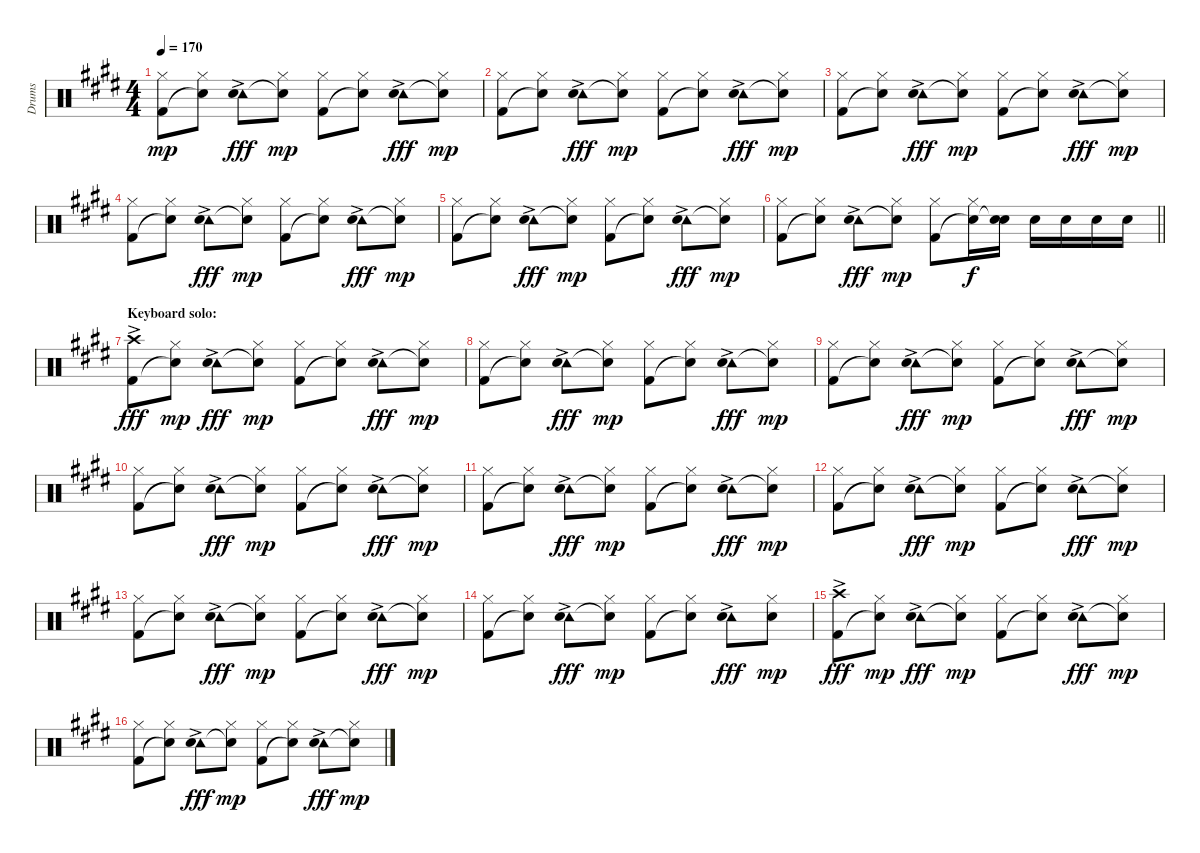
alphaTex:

\track ("Drums" "Drums") {instrument percussion}
\staff {score}
\articulation defaults
\ts (4 4)
\tempo 170
\clef neutral
\ks c#minor
("Hi-Hat (closed)" "Kick (hit) 2").8{dy mp} ("Hi-Hat (closed)" "Snare (hit)"{t}).8 ("Tambourine (hit)"{ac} "Hand Clap (hit)").8{dy fff} ("Hi-Hat (closed)" "Snare (hit)"{t}).8{dy mp} ("Hi-Hat (closed)" "Kick (hit) 2").8 ("Hi-Hat (closed)" "Snare (hit)"{t}).8 ("Tambourine (hit)"{ac} "Hand Clap (hit)").8{dy fff} ("Hi-Hat (closed)" "Snare (hit)"{t}).8{dy mp} |
("Hi-Hat (closed)" "Kick (hit) 2").8 ("Hi-Hat (closed)" "Snare (hit)"{t}).8 ("Tambourine (hit)"{ac} "Hand Clap (hit)").8{dy fff} ("Hi-Hat (closed)" "Snare (hit)"{t}).8{dy mp} ("Hi-Hat (closed)" "Kick (hit) 2").8 ("Hi-Hat (closed)" "Snare (hit)"{t}).8 ("Tambourine (hit)"{ac} "Hand Clap (hit)").8{dy fff} ("Hi-Hat (closed)" "Snare (hit)"{t}).8{dy mp} |
("Hi-Hat (closed)" "Kick (hit) 2").8 ("Hi-Hat (closed)" "Snare (hit)"{t}).8 ("Tambourine (hit)"{ac} "Hand Clap (hit)").8{dy fff} ("Hi-Hat (closed)" "Snare (hit)"{t}).8{dy mp} ("Hi-Hat (closed)" "Kick (hit) 2").8 ("Hi-Hat (closed)" "Snare (hit)"{t}).8 ("Tambourine (hit)"{ac} "Hand Clap (hit)").8{dy fff} ("Hi-Hat (closed)" "Snare (hit)"{t}).8{dy mp} |
("Hi-Hat (closed)" "Kick (hit) 2").8 ("Hi-Hat (closed)" "Snare (hit)"{t}).8 ("Tambourine (hit)"{ac} "Hand Clap (hit)").8{dy fff} ("Hi-Hat (closed)" "Snare (hit)"{t}).8{dy mp} ("Hi-Hat (closed)" "Kick (hit) 2").8 ("Hi-Hat (closed)" "Snare (hit)"{t}).8 ("Tambourine (hit)"{ac} "Hand Clap (hit)").8{dy fff} ("Hi-Hat (closed)" "Snare (hit)"{t}).8{dy mp} |
("Hi-Hat (closed)" "Kick (hit) 2").8 ("Hi-Hat (closed)" "Snare (hit)"{t}).8 ("Tambourine (hit)"{ac} "Hand Clap (hit)").8{dy fff} ("Hi-Hat (closed)" "Snare (hit)"{t}).8{dy mp} ("Hi-Hat (closed)" "Kick (hit) 2").8 ("Hi-Hat (closed)" "Snare (hit)"{t}).8 ("Tambourine (hit)"{ac} "Hand Clap (hit)").8{dy fff} ("Hi-Hat (closed)" "Snare (hit)"{t}).8{dy mp} |
\barLineRight lightlight
("Hi-Hat (closed)" "Kick (hit) 2").8 ("Hi-Hat (closed)" "Snare (hit)"{t}).8 ("Tambourine (hit)"{ac} "Hand Clap (hit)").8{dy fff} ("Hi-Hat (closed)" "Snare (hit)"{t}).8{dy mp} ("Hi-Hat (closed)" "Kick (hit) 2").8 ("Hi-Hat (closed)" "Snare (hit)"{t}).16{dy f} ("Snare (hit) 2" "Snare (hit)"{t}).16 "Snare (hit) 2".16 "Snare (hit) 2".16 "Snare (hit) 2".16 "Snare (hit) 2".16 |
\section ("" "Keyboard solo:")
("Crash high (hit)"{ac} "Kick (hit) 2").8{dy fff} ("Hi-Hat (closed)" "Snare (hit)"{t}).8{dy mp} ("Tambourine (hit)"{ac} "Hand Clap (hit)").8{dy fff} ("Hi-Hat (closed)" "Snare (hit)"{t}).8{dy mp} ("Hi-Hat (closed)" "Kick (hit) 2").8 ("Hi-Hat (closed)" "Snare (hit)"{t}).8 ("Tambourine (hit)"{ac} "Hand Clap (hit)").8{dy fff} ("Hi-Hat (closed)" "Snare (hit)"{t}).8{dy mp} |
("Hi-Hat (closed)" "Kick (hit) 2").8 ("Hi-Hat (closed)" "Snare (hit)"{t}).8 ("Tambourine (hit)"{ac} "Hand Clap (hit)").8{dy fff} ("Hi-Hat (closed)" "Snare (hit)"{t}).8{dy mp} ("Hi-Hat (closed)" "Kick (hit) 2").8 ("Hi-Hat (closed)" "Snare (hit)"{t}).8 ("Tambourine (hit)"{ac} "Hand Clap (hit)").8{dy fff} ("Hi-Hat (closed)" "Snare (hit)"{t}).8{dy mp} |
("Hi-Hat (closed)" "Kick (hit) 2").8 ("Hi-Hat (closed)" "Snare (hit)"{t}).8 ("Tambourine (hit)"{ac} "Hand Clap (hit)").8{dy fff} ("Hi-Hat (closed)" "Snare (hit)"{t}).8{dy mp} ("Hi-Hat (closed)" "Kick (hit) 2").8 ("Hi-Hat (closed)" "Snare (hit)"{t}).8 ("Tambourine (hit)"{ac} "Hand Clap (hit)").8{dy fff} ("Hi-Hat (closed)" "Snare (hit)"{t}).8{dy mp} |
("Hi-Hat (closed)" "Kick (hit) 2").8 ("Hi-Hat (closed)" "Snare (hit)"{t}).8 ("Tambourine (hit)"{ac} "Hand Clap (hit)").8{dy fff} ("Hi-Hat (closed)" "Snare (hit)"{t}).8{dy mp} ("Hi-Hat (closed)" "Kick (hit) 2").8 ("Hi-Hat (closed)" "Snare (hit)"{t}).8 ("Tambourine (hit)"{ac} "Hand Clap (hit)").8{dy fff} ("Hi-Hat (closed)" "Snare (hit)"{t}).8{dy mp} |
("Hi-Hat (closed)" "Kick (hit) 2").8 ("Hi-Hat (closed)" "Snare (hit)"{t}).8 ("Tambourine (hit)"{ac} "Hand Clap (hit)").8{dy fff} ("Hi-Hat (closed)" "Snare (hit)"{t}).8{dy mp} ("Hi-Hat (closed)" "Kick (hit) 2").8 ("Hi-Hat (closed)" "Snare (hit)"{t}).8 ("Tambourine (hit)"{ac} "Hand Clap (hit)").8{dy fff} ("Hi-Hat (closed)" "Snare (hit)"{t}).8{dy mp} |
("Hi-Hat (closed)" "Kick (hit) 2").8 ("Hi-Hat (closed)" "Snare (hit)"{t}).8 ("Tambourine (hit)"{ac} "Hand Clap (hit)").8{dy fff} ("Hi-Hat (closed)" "Snare (hit)"{t}).8{dy mp} ("Hi-Hat (closed)" "Kick (hit) 2").8 ("Hi-Hat (closed)" "Snare (hit)"{t}).8 ("Tambourine (hit)"{ac} "Hand Clap (hit)").8{dy fff} ("Hi-Hat (closed)" "Snare (hit)"{t}).8{dy mp} |
("Hi-Hat (closed)" "Kick (hit) 2").8 ("Hi-Hat (closed)" "Snare (hit)"{t}).8 ("Tambourine (hit)"{ac} "Hand Clap (hit)").8{dy fff} ("Hi-Hat (closed)" "Snare (hit)"{t}).8{dy mp} ("Hi-Hat (closed)" "Kick (hit) 2").8 ("Hi-Hat (closed)" "Snare (hit)"{t}).8 ("Tambourine (hit)"{ac} "Hand Clap (hit)").8{dy fff} ("Hi-Hat (closed)" "Snare (hit)"{t}).8{dy mp} |
("Hi-Hat (closed)" "Kick (hit) 2").8 ("Hi-Hat (closed)" "Snare (hit)"{t}).8 ("Tambourine (hit)"{ac} "Hand Clap (hit)").8{dy fff} ("Hi-Hat (closed)" "Snare (hit)"{t}).8{dy mp} ("Hi-Hat (closed)" "Kick (hit) 2").8 ("Hi-Hat (closed)" "Snare (hit)"{t}).8 ("Tambourine (hit)"{ac} "Snare (hit) 2").8{dy fff} ("Hi-Hat (closed)" "Snare (hit) 2").8{dy mp} |
("Crash high (hit)"{ac} "Kick (hit) 2").8{dy fff} ("Hi-Hat (closed)" "Snare (hit)"{t}).8{dy mp} ("Tambourine (hit)"{ac} "Hand Clap (hit)").8{dy fff} ("Hi-Hat (closed)" "Snare (hit)"{t}).8{dy mp} ("Hi-Hat (closed)" "Kick (hit) 2").8 ("Hi-Hat (closed)" "Snare (hit)"{t}).8 ("Tambourine (hit)"{ac} "Hand Clap (hit)").8{dy fff} ("Hi-Hat (closed)" "Snare (hit)"{t}).8{dy mp} |
("Hi-Hat (closed)" "Kick (hit) 2").8 ("Hi-Hat (closed)" "Snare (hit)"{t}).8 ("Tambourine (hit)"{ac} "Hand Clap (hit)").8{dy fff} ("Hi-Hat (closed)" "Snare (hit)"{t}).8{dy mp} ("Hi-Hat (closed)" "Kick (hit) 2").8 ("Hi-Hat (closed)" "Snare (hit)"{t}).8 ("Tambourine (hit)"{ac} "Hand Clap (hit)").8{dy fff} ("Hi-Hat (closed)" "Snare (hit)"{t}).8{dy mp}
